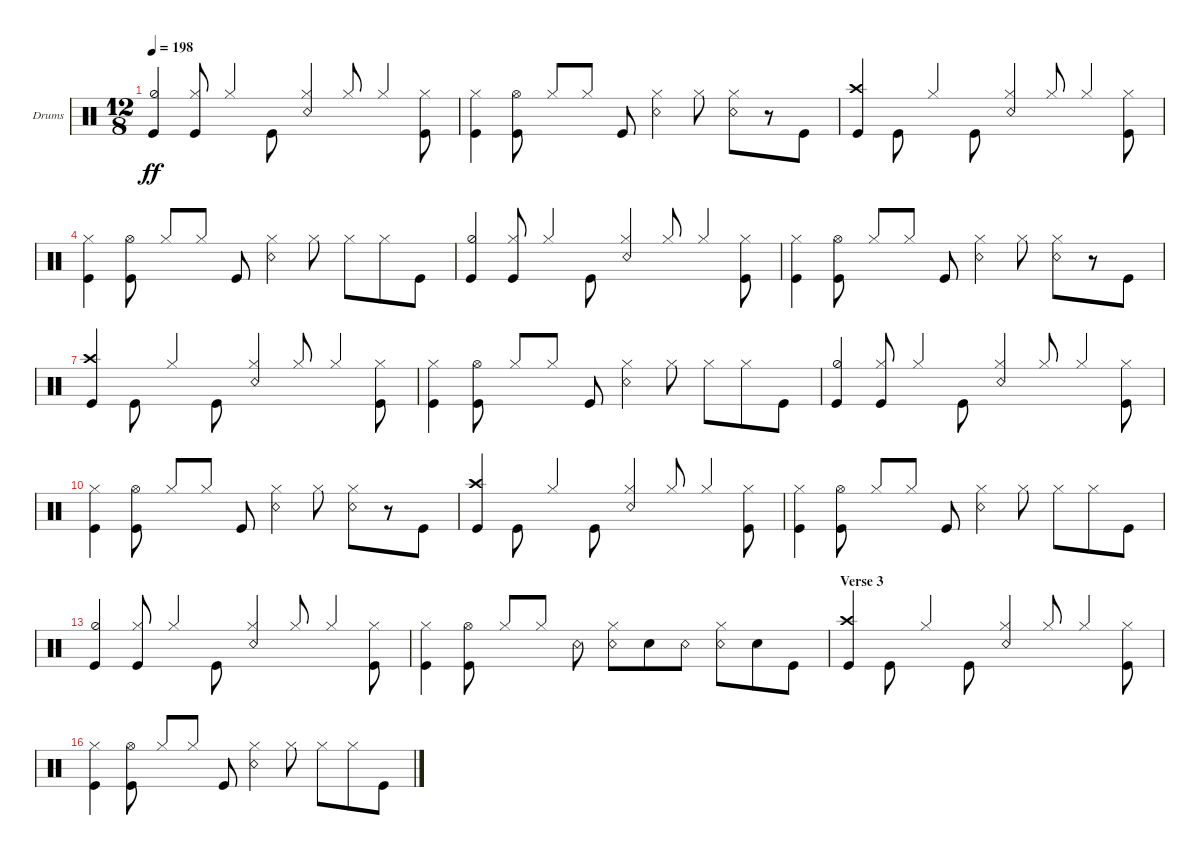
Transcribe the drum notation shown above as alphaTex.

\bracketExtendMode nobrackets
\firstSystemTrackNameOrientation horizontal
\otherSystemsTrackNameOrientation horizontal
\defaultBarNumberDisplay FirstOfSystem
\track ("Drumkit" "Drums") {instrument percussion}
\staff {score}
\articulation defaults
\ts (12 8)
\tempo 198
\clef neutral
\ks c
("Kick (hit)" "Hi-Hat (half)").4{dy ff beam invert} ("Kick (hit)" "Hi-Hat (closed)").8{beam invert} "Hi-Hat (closed)".4 "Kick (hit)".8{beam invert} ("Snare (rim shot)" "Hi-Hat (closed)").4 "Hi-Hat (closed)".8{beam invert} "Hi-Hat (closed)".4{beam invert} ("Kick (hit)" "Hi-Hat (closed)").8 |
("Kick (hit)" "Hi-Hat (closed)").4 ("Kick (hit)" "Hi-Hat (open)").8{beam split} "Hi-Hat (closed)".8 "Hi-Hat (closed)".8{beam invert beam split} "Kick (hit)".8 ("Snare (rim shot)" "Hi-Hat (closed)").4 "Hi-Hat (closed)".8{beam split} ("Hi-Hat (closed)" "Snare (rim shot)").8 r.8 "Kick (hit)".8 |
("Kick (hit)" "Crash high (hit)").4{beam invert} "Kick (hit)".8{beam invert} "Hi-Hat (closed)".4 "Kick (hit)".8{beam invert} ("Snare (rim shot)" "Hi-Hat (closed)").4 "Hi-Hat (closed)".8{beam invert} "Hi-Hat (closed)".4{beam invert} ("Kick (hit)" "Hi-Hat (closed)").8 |
("Kick (hit)" "Hi-Hat (closed)").4 ("Kick (hit)" "Hi-Hat (open)").8{beam split} "Hi-Hat (closed)".8 "Hi-Hat (closed)".8{beam invert beam split} "Kick (hit)".8 ("Snare (rim shot)" "Hi-Hat (closed)").4 "Hi-Hat (closed)".8{beam split} "Hi-Hat (closed)".8 "Hi-Hat (closed)".8 "Kick (hit)".8 |
("Kick (hit)" "Hi-Hat (half)").4{beam invert} ("Kick (hit)" "Hi-Hat (closed)").8{beam invert} "Hi-Hat (closed)".4 "Kick (hit)".8{beam invert} ("Snare (rim shot)" "Hi-Hat (closed)").4 "Hi-Hat (closed)".8{beam invert} "Hi-Hat (closed)".4{beam invert} ("Kick (hit)" "Hi-Hat (closed)").8 |
("Kick (hit)" "Hi-Hat (closed)").4 ("Kick (hit)" "Hi-Hat (open)").8{beam split} "Hi-Hat (closed)".8 "Hi-Hat (closed)".8{beam invert beam split} "Kick (hit)".8 ("Snare (rim shot)" "Hi-Hat (closed)").4 "Hi-Hat (closed)".8{beam split} ("Hi-Hat (closed)" "Snare (rim shot)").8 r.8 "Kick (hit)".8 |
("Kick (hit)" "Crash high (hit)").4{beam invert} "Kick (hit)".8{beam invert} "Hi-Hat (closed)".4 "Kick (hit)".8{beam invert} ("Snare (rim shot)" "Hi-Hat (closed)").4 "Hi-Hat (closed)".8{beam invert} "Hi-Hat (closed)".4{beam invert} ("Kick (hit)" "Hi-Hat (closed)").8 |
("Kick (hit)" "Hi-Hat (closed)").4 ("Kick (hit)" "Hi-Hat (open)").8{beam split} "Hi-Hat (closed)".8 "Hi-Hat (closed)".8{beam invert beam split} "Kick (hit)".8 ("Snare (rim shot)" "Hi-Hat (closed)").4 "Hi-Hat (closed)".8{beam split} "Hi-Hat (closed)".8 "Hi-Hat (closed)".8 "Kick (hit)".8 |
("Kick (hit)" "Hi-Hat (half)").4{beam invert} ("Kick (hit)" "Hi-Hat (closed)").8{beam invert} "Hi-Hat (closed)".4 "Kick (hit)".8{beam invert} ("Snare (rim shot)" "Hi-Hat (closed)").4 "Hi-Hat (closed)".8{beam invert} "Hi-Hat (closed)".4{beam invert} ("Kick (hit)" "Hi-Hat (closed)").8 |
("Kick (hit)" "Hi-Hat (closed)").4 ("Kick (hit)" "Hi-Hat (open)").8{beam split} "Hi-Hat (closed)".8 "Hi-Hat (closed)".8{beam invert beam split} "Kick (hit)".8 ("Snare (rim shot)" "Hi-Hat (closed)").4 "Hi-Hat (closed)".8{beam split} ("Hi-Hat (closed)" "Snare (rim shot)").8 r.8 "Kick (hit)".8 |
("Kick (hit)" "Crash high (hit)").4{beam invert} "Kick (hit)".8{beam invert} "Hi-Hat (closed)".4 "Kick (hit)".8{beam invert} ("Snare (rim shot)" "Hi-Hat (closed)").4 "Hi-Hat (closed)".8{beam invert} "Hi-Hat (closed)".4{beam invert} ("Kick (hit)" "Hi-Hat (closed)").8 |
("Kick (hit)" "Hi-Hat (closed)").4 ("Kick (hit)" "Hi-Hat (open)").8{beam split} "Hi-Hat (closed)".8 "Hi-Hat (closed)".8{beam invert beam split} "Kick (hit)".8 ("Snare (rim shot)" "Hi-Hat (closed)").4 "Hi-Hat (closed)".8{beam split} "Hi-Hat (closed)".8 "Hi-Hat (closed)".8 "Kick (hit)".8 |
("Kick (hit)" "Hi-Hat (half)").4{beam invert} ("Kick (hit)" "Hi-Hat (closed)").8{beam invert} "Hi-Hat (closed)".4 "Kick (hit)".8{beam invert} ("Snare (rim shot)" "Hi-Hat (closed)").4 "Hi-Hat (closed)".8{beam invert} "Hi-Hat (closed)".4{beam invert} ("Kick (hit)" "Hi-Hat (closed)").8 |
("Kick (hit)" "Hi-Hat (closed)").4 ("Kick (hit)" "Hi-Hat (open)").8{beam split} "Hi-Hat (closed)".8 "Hi-Hat (closed)".8{beam invert beam split} "Snare (rim shot)".8 ("Snare (rim shot)" "Hi-Hat (closed)").8 "Snare (hit) 2".8 "Snare (rim shot)".8{beam split} ("Hi-Hat (closed)" "Snare (rim shot)").8 "Snare (hit) 2".8 "Kick (hit)".8 |
\section ("" "Verse 3")
("Kick (hit)" "Crash high (hit)").4{beam invert} "Kick (hit)".8{beam invert} "Hi-Hat (closed)".4 "Kick (hit)".8{beam invert} ("Snare (rim shot)" "Hi-Hat (closed)").4 "Hi-Hat (closed)".8{beam invert} "Hi-Hat (closed)".4{beam invert} ("Kick (hit)" "Hi-Hat (closed)").8 |
("Kick (hit)" "Hi-Hat (closed)").4 ("Kick (hit)" "Hi-Hat (open)").8{beam split} "Hi-Hat (closed)".8 "Hi-Hat (closed)".8{beam invert beam split} "Kick (hit)".8 ("Snare (rim shot)" "Hi-Hat (closed)").4 "Hi-Hat (closed)".8{beam split} "Hi-Hat (closed)".8 "Hi-Hat (closed)".8 "Kick (hit)".8
